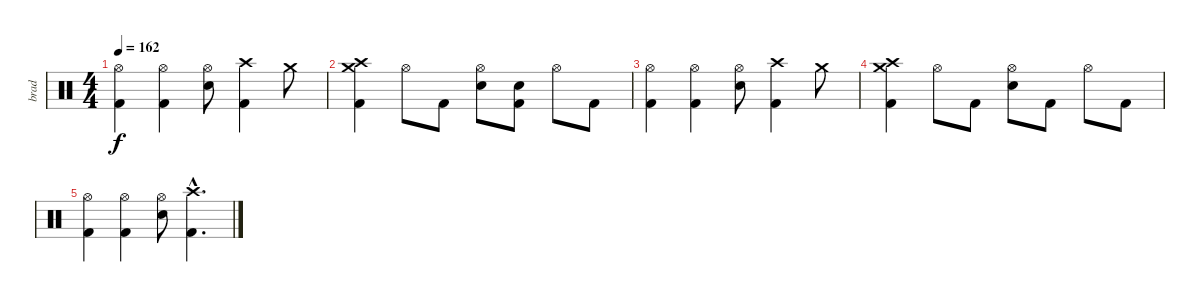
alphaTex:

\track ("brad" "brad") {instrument percussion}
\staff {score}
\articulation defaults
\ts (4 4)
\tempo 162
\clef neutral
\ks c
("Hi-Hat (open)" "Kick (hit) 2").4{dy f} ("Hi-Hat (open)" "Kick (hit) 2").4 ("Hi-Hat (open)" "Electric Snare (hit)").8 ("Crash high (hit)" "Kick (hit) 2").4 "Crash medium (hit)".8 |
("Crash high (hit)" "Crash medium (hit)" "Kick (hit) 2").4 "Hi-Hat (open)".8 "Kick (hit) 2".8 ("Hi-Hat (open)" "Electric Snare (hit)").8 ("Electric Snare (hit)" "Kick (hit) 2").8 "Hi-Hat (open)".8 "Kick (hit) 2".8 |
("Hi-Hat (open)" "Kick (hit) 2").4 ("Hi-Hat (open)" "Kick (hit) 2").4 ("Hi-Hat (open)" "Electric Snare (hit)").8 ("Crash high (hit)" "Kick (hit) 2").4 "Crash medium (hit)".8 |
("Crash high (hit)" "Crash medium (hit)" "Kick (hit) 2").4 "Hi-Hat (open)".8 "Kick (hit) 2".8 ("Hi-Hat (open)" "Electric Snare (hit)").8 "Kick (hit) 2".8 "Hi-Hat (open)".8 "Kick (hit) 2".8 |
("Hi-Hat (open)" "Kick (hit) 2").4 ("Hi-Hat (open)" "Kick (hit) 2").4 ("Hi-Hat (open)" "Electric Snare (hit)").8 ("Crash high (hit)"{hac} "Kick (hit) 2"{hac}).4{d}
